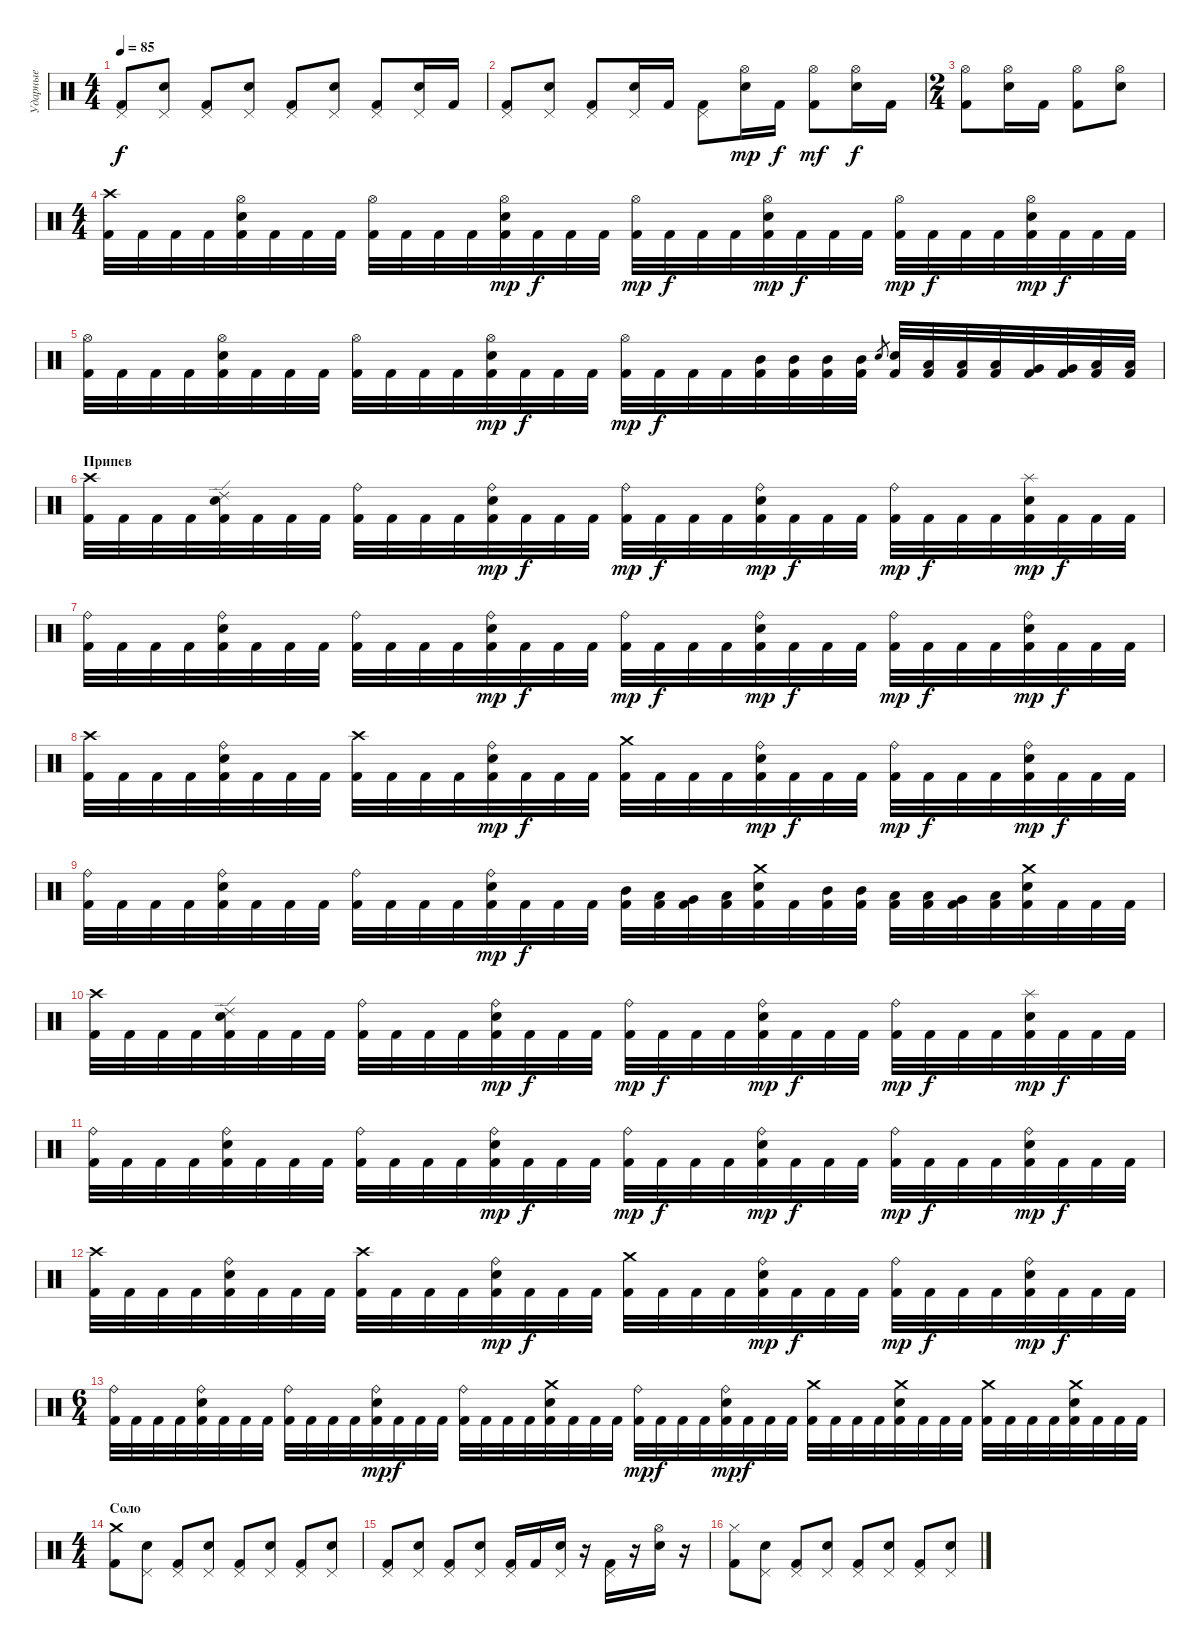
\track ("Ударные" "Ударные") {instrument percussion}
\staff {score}
\articulation defaults
\ts (4 4)
\tempo 85
\clef neutral
\ks c
("Pedal Hi-Hat (hit)" "Kick (hit) 2").8{dy f} ("Pedal Hi-Hat (hit)" "Snare (hit) 2").8 ("Pedal Hi-Hat (hit)" "Kick (hit) 2").8 ("Pedal Hi-Hat (hit)" "Snare (hit) 2").8 ("Pedal Hi-Hat (hit)" "Kick (hit) 2").8 ("Pedal Hi-Hat (hit)" "Snare (hit) 2").8 ("Pedal Hi-Hat (hit)" "Kick (hit) 2").8 ("Pedal Hi-Hat (hit)" "Snare (hit) 2").16 "Kick (hit) 2".16 |
("Pedal Hi-Hat (hit)" "Kick (hit) 2").8 ("Pedal Hi-Hat (hit)" "Snare (hit) 2").8 ("Pedal Hi-Hat (hit)" "Kick (hit) 2").8 ("Pedal Hi-Hat (hit)" "Snare (hit) 2").16 "Kick (hit) 2".16 ("Pedal Hi-Hat (hit)" "Kick (hit) 2").8 ("Hi-Hat (open)" "Snare (hit) 2").16{dy mp} "Kick (hit) 2".16{dy f} ("Hi-Hat (open)" "Kick (hit) 2").8{dy mf} ("Hi-Hat (open)" "Snare (hit) 2").16{dy f} "Kick (hit) 2".16 |
\ts (2 4)
("Hi-Hat (open)" "Kick (hit) 2").8 ("Hi-Hat (open)" "Snare (hit) 2").16 "Kick (hit) 2".16 ("Hi-Hat (open)" "Kick (hit) 2").8 ("Hi-Hat (open)" "Snare (hit) 2").8 |
\ts (4 4)
("Crash high (hit)" "Kick (hit) 2").32 "Kick (hit) 2".32 "Kick (hit) 2".32 "Kick (hit) 2".32 ("Hi-Hat (open)" "Snare (hit) 2" "Kick (hit) 2").32 "Kick (hit) 2".32 "Kick (hit) 2".32 "Kick (hit) 2".32 ("Hi-Hat (open)" "Kick (hit) 2").32 "Kick (hit) 2".32 "Kick (hit) 2".32 "Kick (hit) 2".32 ("Hi-Hat (open)" "Snare (hit) 2" "Kick (hit) 2").32{dy mp} "Kick (hit) 2".32{dy f} "Kick (hit) 2".32 "Kick (hit) 2".32 ("Hi-Hat (open)" "Kick (hit) 2").32{dy mp} "Kick (hit) 2".32{dy f} "Kick (hit) 2".32 "Kick (hit) 2".32 ("Hi-Hat (open)" "Snare (hit) 2" "Kick (hit) 2").32{dy mp} "Kick (hit) 2".32{dy f} "Kick (hit) 2".32 "Kick (hit) 2".32 ("Hi-Hat (open)" "Kick (hit) 2").32{dy mp} "Kick (hit) 2".32{dy f} "Kick (hit) 2".32 "Kick (hit) 2".32 ("Hi-Hat (open)" "Snare (hit) 2" "Kick (hit) 2").32{dy mp} "Kick (hit) 2".32{dy f} "Kick (hit) 2".32 "Kick (hit) 2".32 |
\section ("" "")
("Hi-Hat (open)" "Kick (hit) 2").32 "Kick (hit) 2".32 "Kick (hit) 2".32 "Kick (hit) 2".32 ("Hi-Hat (open)" "Snare (hit) 2" "Kick (hit) 2").32 "Kick (hit) 2".32 "Kick (hit) 2".32 "Kick (hit) 2".32 ("Hi-Hat (open)" "Kick (hit) 2").32 "Kick (hit) 2".32 "Kick (hit) 2".32 "Kick (hit) 2".32 ("Hi-Hat (open)" "Snare (hit) 2" "Kick (hit) 2").32{dy mp} "Kick (hit) 2".32{dy f} "Kick (hit) 2".32 "Kick (hit) 2".32 ("Hi-Hat (open)" "Kick (hit) 2").32{dy mp} "Kick (hit) 2".32{dy f} "Kick (hit) 2".32 "Kick (hit) 2".32 ("Mid Tom (hit)" "Kick (hit) 2").32 ("Mid Tom (hit)" "Kick (hit) 2").32 ("Mid Tom (hit)" "Kick (hit) 2").32 ("Mid Tom (hit)" "Kick (hit) 2").32 "Snare (hit) 2".8{gr} ("Snare (hit) 2" "Kick (hit) 2").32 ("Low Tom (hit)" "Kick (hit) 2").32 ("Low Tom (hit)" "Kick (hit) 2").32 ("Low Tom (hit)" "Kick (hit) 2").32 ("Very Low Tom (hit)" "Kick (hit) 2").32 ("Very Low Tom (hit)" "Kick (hit) 2").32 ("Low Floor Tom (hit)" "Kick (hit) 2").32 ("Low Floor Tom (hit)" "Kick (hit) 2").32 |
\section ("" "Припев")
("Crash high (hit)" "Kick (hit) 2").32 "Kick (hit) 2".32 "Kick (hit) 2".32 "Kick (hit) 2".32 ("Ride (edge) 2" "Snare (hit) 2" "Kick (hit) 2").32 "Kick (hit) 2".32 "Kick (hit) 2".32 "Kick (hit) 2".32 ("Ride (bell)" "Kick (hit) 2").32 "Kick (hit) 2".32 "Kick (hit) 2".32 "Kick (hit) 2".32 ("Ride (bell)" "Snare (hit) 2" "Kick (hit) 2").32{dy mp} "Kick (hit) 2".32{dy f} "Kick (hit) 2".32 "Kick (hit) 2".32 ("Ride (bell)" "Kick (hit) 2").32{dy mp} "Kick (hit) 2".32{dy f} "Kick (hit) 2".32 "Kick (hit) 2".32 ("Ride (bell)" "Snare (hit) 2" "Kick (hit) 2").32{dy mp} "Kick (hit) 2".32{dy f} "Kick (hit) 2".32 "Kick (hit) 2".32 ("Ride (bell)" "Kick (hit) 2").32{dy mp} "Kick (hit) 2".32{dy f} "Kick (hit) 2".32 "Kick (hit) 2".32 ("Splash (hit)" "Snare (hit) 2" "Kick (hit) 2").32{dy mp} "Kick (hit) 2".32{dy f} "Kick (hit) 2".32 "Kick (hit) 2".32 |
("Ride (bell)" "Kick (hit) 2").32 "Kick (hit) 2".32 "Kick (hit) 2".32 "Kick (hit) 2".32 ("Ride (bell)" "Snare (hit) 2" "Kick (hit) 2").32 "Kick (hit) 2".32 "Kick (hit) 2".32 "Kick (hit) 2".32 ("Ride (bell)" "Kick (hit) 2").32 "Kick (hit) 2".32 "Kick (hit) 2".32 "Kick (hit) 2".32 ("Ride (bell)" "Snare (hit) 2" "Kick (hit) 2").32{dy mp} "Kick (hit) 2".32{dy f} "Kick (hit) 2".32 "Kick (hit) 2".32 ("Ride (bell)" "Kick (hit) 2").32{dy mp} "Kick (hit) 2".32{dy f} "Kick (hit) 2".32 "Kick (hit) 2".32 ("Ride (bell)" "Snare (hit) 2" "Kick (hit) 2").32{dy mp} "Kick (hit) 2".32{dy f} "Kick (hit) 2".32 "Kick (hit) 2".32 ("Ride (bell)" "Kick (hit) 2").32{dy mp} "Kick (hit) 2".32{dy f} "Kick (hit) 2".32 "Kick (hit) 2".32 ("Ride (bell)" "Snare (hit) 2" "Kick (hit) 2").32{dy mp} "Kick (hit) 2".32{dy f} "Kick (hit) 2".32 "Kick (hit) 2".32 |
("Crash high (hit)" "Kick (hit) 2").32 "Kick (hit) 2".32 "Kick (hit) 2".32 "Kick (hit) 2".32 ("Ride (bell)" "Snare (hit) 2" "Kick (hit) 2").32 "Kick (hit) 2".32 "Kick (hit) 2".32 "Kick (hit) 2".32 ("Crash high (hit)" "Kick (hit) 2").32 "Kick (hit) 2".32 "Kick (hit) 2".32 "Kick (hit) 2".32 ("Ride (bell)" "Snare (hit) 2" "Kick (hit) 2").32{dy mp} "Kick (hit) 2".32{dy f} "Kick (hit) 2".32 "Kick (hit) 2".32 ("Crash medium (hit)" "Kick (hit) 2").32 "Kick (hit) 2".32 "Kick (hit) 2".32 "Kick (hit) 2".32 ("Ride (bell)" "Snare (hit) 2" "Kick (hit) 2").32{dy mp} "Kick (hit) 2".32{dy f} "Kick (hit) 2".32 "Kick (hit) 2".32 ("Ride (bell)" "Kick (hit) 2").32{dy mp} "Kick (hit) 2".32{dy f} "Kick (hit) 2".32 "Kick (hit) 2".32 ("Ride (bell)" "Snare (hit) 2" "Kick (hit) 2").32{dy mp} "Kick (hit) 2".32{dy f} "Kick (hit) 2".32 "Kick (hit) 2".32 |
("Ride (bell)" "Kick (hit) 2").32 "Kick (hit) 2".32 "Kick (hit) 2".32 "Kick (hit) 2".32 ("Ride (bell)" "Snare (hit) 2" "Kick (hit) 2").32 "Kick (hit) 2".32 "Kick (hit) 2".32 "Kick (hit) 2".32 ("Ride (bell)" "Kick (hit) 2").32 "Kick (hit) 2".32 "Kick (hit) 2".32 "Kick (hit) 2".32 ("Ride (bell)" "Snare (hit) 2" "Kick (hit) 2").32{dy mp} "Kick (hit) 2".32{dy f} "Kick (hit) 2".32 "Kick (hit) 2".32 ("Mid Tom (hit)" "Kick (hit) 2").32 ("Low Tom (hit)" "Kick (hit) 2").32 ("Very Low Tom (hit)" "Kick (hit) 2").32 ("Low Floor Tom (hit)" "Kick (hit) 2").32 ("Crash medium (hit)" "Snare (hit) 2" "Kick (hit) 2").32 "Kick (hit) 2".32 ("Mid Tom (hit)" "Kick (hit) 2").32 ("Mid Tom (hit)" "Kick (hit) 2").32 ("Low Tom (hit)" "Kick (hit) 2").32 ("Low Tom (hit)" "Kick (hit) 2").32 ("Very Low Tom (hit)" "Kick (hit) 2").32 ("Low Floor Tom (hit)" "Kick (hit) 2").32 ("Crash medium (hit)" "Snare (hit) 2" "Kick (hit) 2").32 "Kick (hit) 2".32 "Kick (hit) 2".32 "Kick (hit) 2".32 |
("Crash high (hit)" "Kick (hit) 2").32 "Kick (hit) 2".32 "Kick (hit) 2".32 "Kick (hit) 2".32 ("Ride (edge) 2" "Snare (hit) 2" "Kick (hit) 2").32 "Kick (hit) 2".32 "Kick (hit) 2".32 "Kick (hit) 2".32 ("Ride (bell)" "Kick (hit) 2").32 "Kick (hit) 2".32 "Kick (hit) 2".32 "Kick (hit) 2".32 ("Ride (bell)" "Snare (hit) 2" "Kick (hit) 2").32{dy mp} "Kick (hit) 2".32{dy f} "Kick (hit) 2".32 "Kick (hit) 2".32 ("Ride (bell)" "Kick (hit) 2").32{dy mp} "Kick (hit) 2".32{dy f} "Kick (hit) 2".32 "Kick (hit) 2".32 ("Ride (bell)" "Snare (hit) 2" "Kick (hit) 2").32{dy mp} "Kick (hit) 2".32{dy f} "Kick (hit) 2".32 "Kick (hit) 2".32 ("Ride (bell)" "Kick (hit) 2").32{dy mp} "Kick (hit) 2".32{dy f} "Kick (hit) 2".32 "Kick (hit) 2".32 ("Splash (hit)" "Snare (hit) 2" "Kick (hit) 2").32{dy mp} "Kick (hit) 2".32{dy f} "Kick (hit) 2".32 "Kick (hit) 2".32 |
("Ride (bell)" "Kick (hit) 2").32 "Kick (hit) 2".32 "Kick (hit) 2".32 "Kick (hit) 2".32 ("Ride (bell)" "Snare (hit) 2" "Kick (hit) 2").32 "Kick (hit) 2".32 "Kick (hit) 2".32 "Kick (hit) 2".32 ("Ride (bell)" "Kick (hit) 2").32 "Kick (hit) 2".32 "Kick (hit) 2".32 "Kick (hit) 2".32 ("Ride (bell)" "Snare (hit) 2" "Kick (hit) 2").32{dy mp} "Kick (hit) 2".32{dy f} "Kick (hit) 2".32 "Kick (hit) 2".32 ("Ride (bell)" "Kick (hit) 2").32{dy mp} "Kick (hit) 2".32{dy f} "Kick (hit) 2".32 "Kick (hit) 2".32 ("Ride (bell)" "Snare (hit) 2" "Kick (hit) 2").32{dy mp} "Kick (hit) 2".32{dy f} "Kick (hit) 2".32 "Kick (hit) 2".32 ("Ride (bell)" "Kick (hit) 2").32{dy mp} "Kick (hit) 2".32{dy f} "Kick (hit) 2".32 "Kick (hit) 2".32 ("Ride (bell)" "Snare (hit) 2" "Kick (hit) 2").32{dy mp} "Kick (hit) 2".32{dy f} "Kick (hit) 2".32 "Kick (hit) 2".32 |
("Crash high (hit)" "Kick (hit) 2").32 "Kick (hit) 2".32 "Kick (hit) 2".32 "Kick (hit) 2".32 ("Ride (bell)" "Snare (hit) 2" "Kick (hit) 2").32 "Kick (hit) 2".32 "Kick (hit) 2".32 "Kick (hit) 2".32 ("Crash high (hit)" "Kick (hit) 2").32 "Kick (hit) 2".32 "Kick (hit) 2".32 "Kick (hit) 2".32 ("Ride (bell)" "Snare (hit) 2" "Kick (hit) 2").32{dy mp} "Kick (hit) 2".32{dy f} "Kick (hit) 2".32 "Kick (hit) 2".32 ("Crash medium (hit)" "Kick (hit) 2").32 "Kick (hit) 2".32 "Kick (hit) 2".32 "Kick (hit) 2".32 ("Ride (bell)" "Snare (hit) 2" "Kick (hit) 2").32{dy mp} "Kick (hit) 2".32{dy f} "Kick (hit) 2".32 "Kick (hit) 2".32 ("Ride (bell)" "Kick (hit) 2").32{dy mp} "Kick (hit) 2".32{dy f} "Kick (hit) 2".32 "Kick (hit) 2".32 ("Ride (bell)" "Snare (hit) 2" "Kick (hit) 2").32{dy mp} "Kick (hit) 2".32{dy f} "Kick (hit) 2".32 "Kick (hit) 2".32 |
\ts (6 4)
("Ride (bell)" "Kick (hit) 2").32 "Kick (hit) 2".32 "Kick (hit) 2".32 "Kick (hit) 2".32 ("Ride (bell)" "Snare (hit) 2" "Kick (hit) 2").32 "Kick (hit) 2".32 "Kick (hit) 2".32 "Kick (hit) 2".32 ("Ride (bell)" "Kick (hit) 2").32 "Kick (hit) 2".32 "Kick (hit) 2".32 "Kick (hit) 2".32 ("Ride (bell)" "Snare (hit) 2" "Kick (hit) 2").32{dy mp} "Kick (hit) 2".32{dy f} "Kick (hit) 2".32 "Kick (hit) 2".32 ("Ride (bell)" "Kick (hit) 2").32 "Kick (hit) 2".32 "Kick (hit) 2".32 "Kick (hit) 2".32 ("Crash medium (hit)" "Snare (hit) 2" "Kick (hit) 2").32 "Kick (hit) 2".32 "Kick (hit) 2".32 "Kick (hit) 2".32 ("Ride (bell)" "Kick (hit) 2").32{dy mp} "Kick (hit) 2".32{dy f} "Kick (hit) 2".32 "Kick (hit) 2".32 ("Ride (bell)" "Snare (hit) 2" "Kick (hit) 2").32{dy mp} "Kick (hit) 2".32{dy f} "Kick (hit) 2".32 "Kick (hit) 2".32 ("Crash medium (hit)" "Kick (hit) 2").32 "Kick (hit) 2".32 "Kick (hit) 2".32 "Kick (hit) 2".32 ("Crash medium (hit)" "Snare (hit) 2" "Kick (hit) 2").32 "Kick (hit) 2".32 "Kick (hit) 2".32 "Kick (hit) 2".32 ("Crash medium (hit)" "Kick (hit) 2").32 "Kick (hit) 2".32 "Kick (hit) 2".32 "Kick (hit) 2".32 ("Crash medium (hit)" "Snare (hit) 2" "Kick (hit) 2").32 "Kick (hit) 2".32 "Kick (hit) 2".32 "Kick (hit) 2".32 |
\ts (4 4)
\section ("" "Соло")
("Crash medium (hit)" "Kick (hit) 2").8 ("Pedal Hi-Hat (hit)" "Snare (hit) 2").8 ("Pedal Hi-Hat (hit)" "Kick (hit) 2").8 ("Pedal Hi-Hat (hit)" "Snare (hit) 2").8 ("Pedal Hi-Hat (hit)" "Kick (hit) 2").8 ("Pedal Hi-Hat (hit)" "Snare (hit) 2").8 ("Pedal Hi-Hat (hit)" "Kick (hit) 2").8 ("Pedal Hi-Hat (hit)" "Snare (hit) 2").8 |
("Pedal Hi-Hat (hit)" "Kick (hit) 2").8 ("Pedal Hi-Hat (hit)" "Snare (hit) 2").8 ("Pedal Hi-Hat (hit)" "Kick (hit) 2").8 ("Pedal Hi-Hat (hit)" "Snare (hit) 2").8 ("Pedal Hi-Hat (hit)" "Kick (hit) 2").16 "Kick (hit) 2".16 ("Pedal Hi-Hat (hit)" "Snare (hit) 2").16 r.16 ("Pedal Hi-Hat (hit)" "Kick (hit) 2").16 r.16 ("Hi-Hat (open)" "Snare (hit) 2").16 r.16 |
("Hi-Hat (closed)" "Kick (hit) 2").8 ("Pedal Hi-Hat (hit)" "Snare (hit) 2").8 ("Pedal Hi-Hat (hit)" "Kick (hit) 2").8 ("Pedal Hi-Hat (hit)" "Snare (hit) 2").8 ("Pedal Hi-Hat (hit)" "Kick (hit) 2").8 ("Pedal Hi-Hat (hit)" "Snare (hit) 2").8 ("Pedal Hi-Hat (hit)" "Kick (hit) 2").8 ("Pedal Hi-Hat (hit)" "Snare (hit) 2").8
